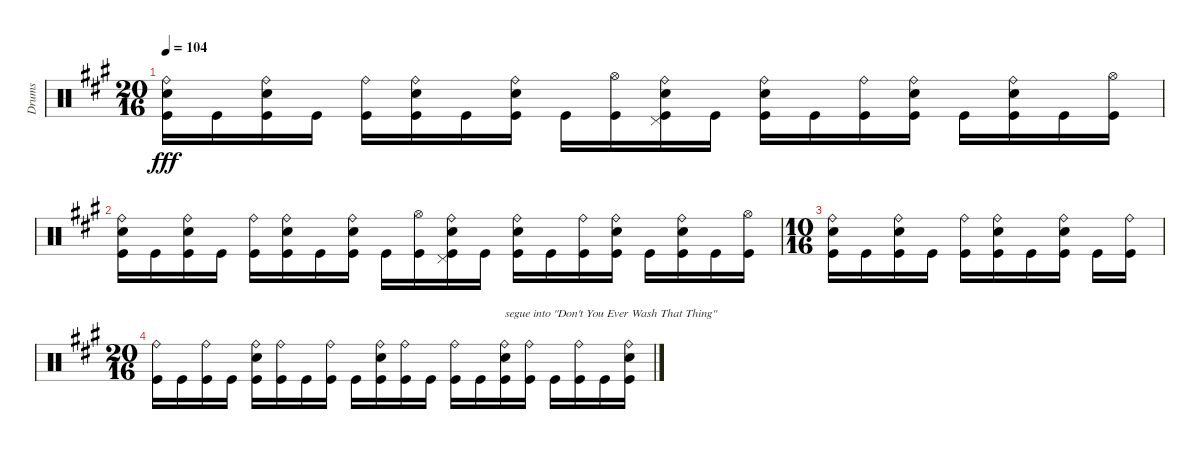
\track ("Drums" "Drums") {instrument percussion}
\staff {score}
\articulation defaults
\ts (20 16)
\tempo 104
\clef neutral
\ks a
("Ride (bell)" "Snare (hit) 2" "Kick (hit)").16{dy fff} "Kick (hit)".16 ("Ride (bell)" "Snare (hit) 2" "Kick (hit)").16 "Kick (hit)".16 ("Ride (bell)" "Kick (hit)").16 ("Ride (bell)" "Snare (hit) 2" "Kick (hit)").16 "Kick (hit)".16 ("Ride (bell)" "Snare (hit) 2" "Kick (hit)").16 "Kick (hit)".16 ("Hi-Hat (open)" "Kick (hit)").16 ("Ride (bell)" "Pedal Hi-Hat (hit)" "Snare (hit) 2" "Kick (hit)").16 "Kick (hit)".16 ("Ride (bell)" "Snare (hit) 2" "Kick (hit)").16 "Kick (hit)".16 ("Ride (bell)" "Kick (hit)").16 ("Ride (bell)" "Snare (hit) 2" "Kick (hit)").16 "Kick (hit)".16 ("Ride (bell)" "Snare (hit) 2" "Kick (hit)").16 "Kick (hit)".16 ("Hi-Hat (open)" "Kick (hit)").16 |
("Ride (bell)" "Snare (hit) 2" "Kick (hit)").16 "Kick (hit)".16 ("Ride (bell)" "Snare (hit) 2" "Kick (hit)").16 "Kick (hit)".16 ("Ride (bell)" "Kick (hit)").16 ("Ride (bell)" "Snare (hit) 2" "Kick (hit)").16 "Kick (hit)".16 ("Ride (bell)" "Snare (hit) 2" "Kick (hit)").16 "Kick (hit)".16 ("Hi-Hat (open)" "Kick (hit)").16 ("Ride (bell)" "Pedal Hi-Hat (hit)" "Snare (hit) 2" "Kick (hit)").16 "Kick (hit)".16 ("Ride (bell)" "Snare (hit) 2" "Kick (hit)").16 "Kick (hit)".16 ("Ride (bell)" "Kick (hit)").16 ("Ride (bell)" "Snare (hit) 2" "Kick (hit)").16 "Kick (hit)".16 ("Ride (bell)" "Snare (hit) 2" "Kick (hit)").16 "Kick (hit)".16 ("Hi-Hat (open)" "Kick (hit)").16 |
\ts (10 16)
("Ride (bell)" "Snare (hit) 2" "Kick (hit)").16 "Kick (hit)".16 ("Ride (bell)" "Snare (hit) 2" "Kick (hit)").16 "Kick (hit)".16 ("Ride (bell)" "Kick (hit)").16 ("Ride (bell)" "Snare (hit) 2" "Kick (hit)").16 "Kick (hit)".16 ("Ride (bell)" "Snare (hit) 2" "Kick (hit)").16 "Kick (hit)".16 ("Ride (bell)" "Kick (hit)").16 |
\ts (20 16)
("Ride (bell)" "Kick (hit)").16 "Kick (hit)".16 ("Ride (bell)" "Kick (hit)").16 "Kick (hit)".16 ("Ride (bell)" "Snare (hit) 2" "Kick (hit)").16 ("Ride (bell)" "Kick (hit)").16 "Kick (hit)".16 ("Ride (bell)" "Kick (hit)").16 "Kick (hit)".16 ("Ride (bell)" "Snare (hit) 2" "Kick (hit)").16 ("Ride (bell)" "Kick (hit)").16 "Kick (hit)".16 ("Ride (bell)" "Kick (hit)").16 "Kick (hit)".16 ("Ride (bell)" "Snare (hit) 2" "Kick (hit)").16{txt "segue into \"Don't You Ever Wash That Thing\""} ("Ride (bell)" "Kick (hit)").16 "Kick (hit)".16 ("Ride (bell)" "Kick (hit)").16 "Kick (hit)".16 ("Ride (bell)" "Snare (hit) 2" "Kick (hit)").16
